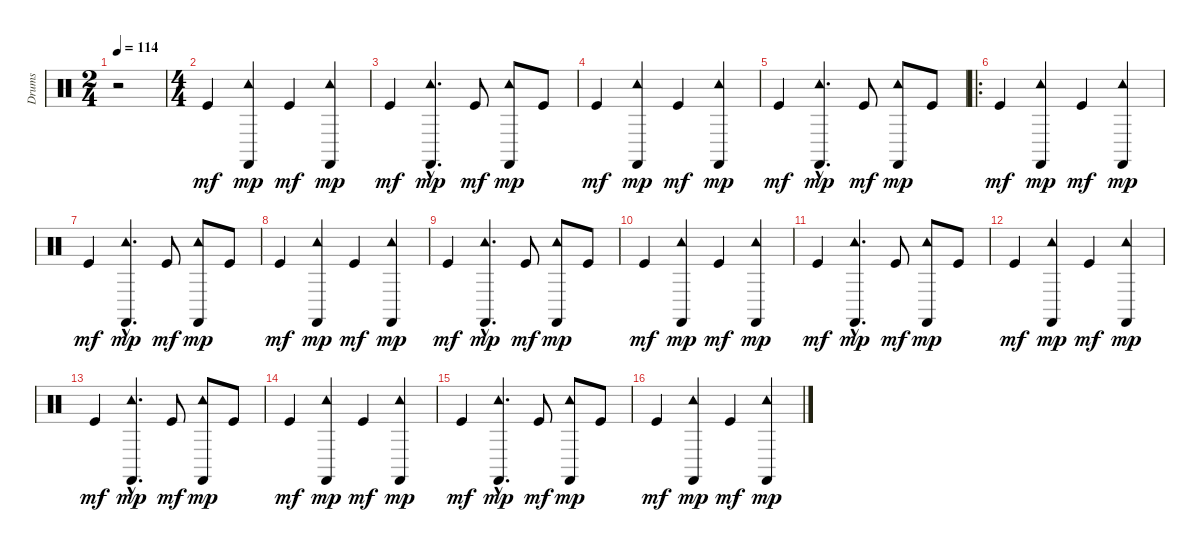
\track ("Drums" "Drums") {instrument percussion}
\staff {score}
\articulation defaults
\ts (2 4)
\tempo 114
\clef neutral
\ks c
r.2{dy mf} |
\ts (4 4)
"Kick (hit)".4 ("Tambourine (hit)" "Castanets (hit)").4{dy mp} "Kick (hit)".4{dy mf} ("Tambourine (hit)" "Castanets (hit)").4{dy mp} |
"Kick (hit)".4{dy mf} ("Tambourine (hit)"{hac} "Castanets (hit)"{hac}).4{d dy mp} "Kick (hit)".8{dy mf} ("Tambourine (hit)" "Castanets (hit)").8{dy mp} "Kick (hit)".8 |
"Kick (hit)".4{dy mf} ("Tambourine (hit)" "Castanets (hit)").4{dy mp} "Kick (hit)".4{dy mf} ("Tambourine (hit)" "Castanets (hit)").4{dy mp} |
"Kick (hit)".4{dy mf} ("Tambourine (hit)"{hac} "Castanets (hit)"{hac}).4{d dy mp} "Kick (hit)".8{dy mf} ("Tambourine (hit)" "Castanets (hit)").8{dy mp} "Kick (hit)".8 |
\ro "Kick (hit)".4{dy mf}
("Tambourine (hit)" "Castanets (hit)").4{dy mp} "Kick (hit)".4{dy mf} ("Tambourine (hit)" "Castanets (hit)").4{dy mp} |
"Kick (hit)".4{dy mf} ("Tambourine (hit)"{hac} "Castanets (hit)"{hac}).4{d dy mp} "Kick (hit)".8{dy mf} ("Tambourine (hit)" "Castanets (hit)").8{dy mp} "Kick (hit)".8 |
"Kick (hit)".4{dy mf} ("Tambourine (hit)" "Castanets (hit)").4{dy mp} "Kick (hit)".4{dy mf} ("Tambourine (hit)" "Castanets (hit)").4{dy mp} |
"Kick (hit)".4{dy mf} ("Tambourine (hit)"{hac} "Castanets (hit)"{hac}).4{d dy mp} "Kick (hit)".8{dy mf} ("Tambourine (hit)" "Castanets (hit)").8{dy mp} "Kick (hit)".8 |
"Kick (hit)".4{dy mf} ("Tambourine (hit)" "Castanets (hit)").4{dy mp} "Kick (hit)".4{dy mf} ("Tambourine (hit)" "Castanets (hit)").4{dy mp} |
"Kick (hit)".4{dy mf} ("Tambourine (hit)"{hac} "Castanets (hit)"{hac}).4{d dy mp} "Kick (hit)".8{dy mf} ("Tambourine (hit)" "Castanets (hit)").8{dy mp} "Kick (hit)".8 |
"Kick (hit)".4{dy mf} ("Tambourine (hit)" "Castanets (hit)").4{dy mp} "Kick (hit)".4{dy mf} ("Tambourine (hit)" "Castanets (hit)").4{dy mp} |
"Kick (hit)".4{dy mf} ("Tambourine (hit)"{hac} "Castanets (hit)"{hac}).4{d dy mp} "Kick (hit)".8{dy mf} ("Tambourine (hit)" "Castanets (hit)").8{dy mp} "Kick (hit)".8 |
"Kick (hit)".4{dy mf} ("Tambourine (hit)" "Castanets (hit)").4{dy mp} "Kick (hit)".4{dy mf} ("Tambourine (hit)" "Castanets (hit)").4{dy mp} |
"Kick (hit)".4{dy mf} ("Tambourine (hit)"{hac} "Castanets (hit)"{hac}).4{d dy mp} "Kick (hit)".8{dy mf} ("Tambourine (hit)" "Castanets (hit)").8{dy mp} "Kick (hit)".8 |
"Kick (hit)".4{dy mf} ("Tambourine (hit)" "Castanets (hit)").4{dy mp} "Kick (hit)".4{dy mf} ("Tambourine (hit)" "Castanets (hit)").4{dy mp}
